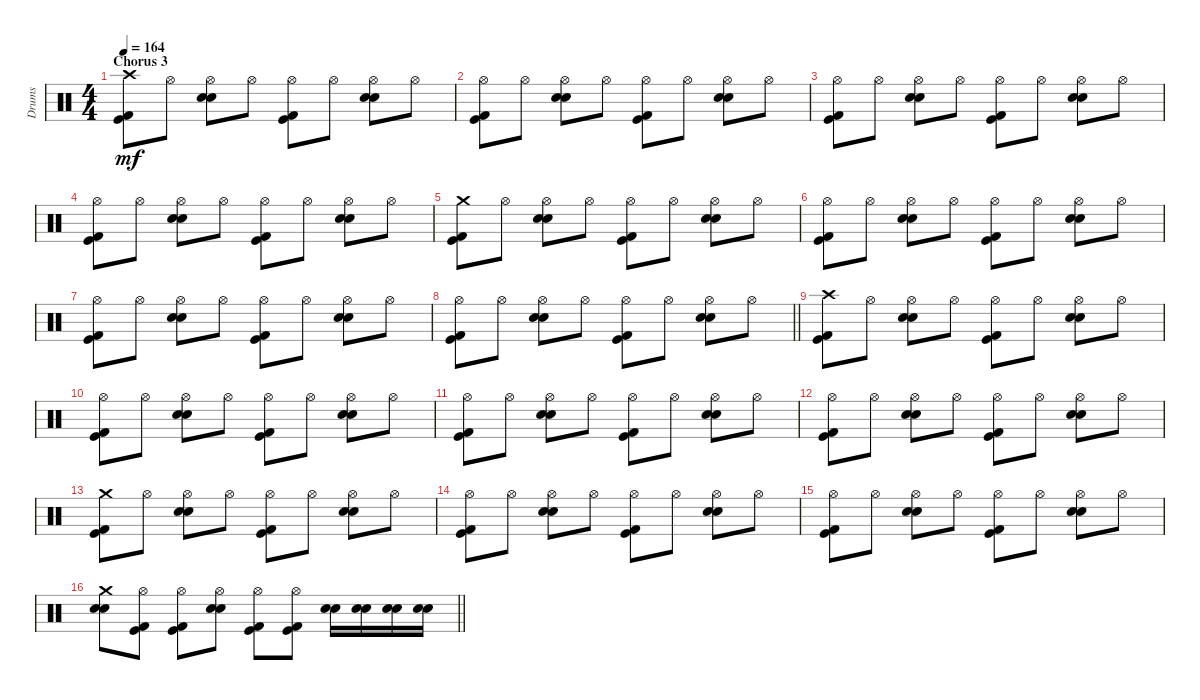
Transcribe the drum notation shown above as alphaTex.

\track ("Drums" "Drums") {instrument percussion}
\staff {score}
\articulation defaults
\ts (4 4)
\section ("" "Chorus 3")
\tempo 164
\clef neutral
\ks c
("Crash high (hit)" "Kick (hit) 2" "Kick (hit)").8{dy mf} "Hi-Hat (open)".8 ("Hi-Hat (open)" "Snare (hit) 2" "Electric Snare (hit)").8 "Hi-Hat (open)".8 ("Hi-Hat (open)" "Kick (hit) 2" "Kick (hit)").8 "Hi-Hat (open)".8 ("Hi-Hat (open)" "Snare (hit) 2" "Electric Snare (hit)").8 "Hi-Hat (open)".8 |
("Hi-Hat (open)" "Kick (hit) 2" "Kick (hit)").8 "Hi-Hat (open)".8 ("Hi-Hat (open)" "Snare (hit) 2" "Electric Snare (hit)").8 "Hi-Hat (open)".8 ("Hi-Hat (open)" "Kick (hit) 2" "Kick (hit)").8 "Hi-Hat (open)".8 ("Hi-Hat (open)" "Snare (hit) 2" "Electric Snare (hit)").8 "Hi-Hat (open)".8 |
("Hi-Hat (open)" "Kick (hit) 2" "Kick (hit)").8 "Hi-Hat (open)".8 ("Hi-Hat (open)" "Snare (hit) 2" "Electric Snare (hit)").8 "Hi-Hat (open)".8 ("Hi-Hat (open)" "Kick (hit) 2" "Kick (hit)").8 "Hi-Hat (open)".8 ("Hi-Hat (open)" "Snare (hit) 2" "Electric Snare (hit)").8 "Hi-Hat (open)".8 |
("Hi-Hat (open)" "Kick (hit) 2" "Kick (hit)").8 "Hi-Hat (open)".8 ("Hi-Hat (open)" "Snare (hit) 2" "Electric Snare (hit)").8 "Hi-Hat (open)".8 ("Hi-Hat (open)" "Kick (hit) 2" "Kick (hit)").8 "Hi-Hat (open)".8 ("Hi-Hat (open)" "Snare (hit) 2" "Electric Snare (hit)").8 "Hi-Hat (open)".8 |
("Crash medium (hit)" "Kick (hit) 2" "Kick (hit)").8 "Hi-Hat (open)".8 ("Hi-Hat (open)" "Snare (hit) 2" "Electric Snare (hit)").8 "Hi-Hat (open)".8 ("Hi-Hat (open)" "Kick (hit) 2" "Kick (hit)").8 "Hi-Hat (open)".8 ("Hi-Hat (open)" "Snare (hit) 2" "Electric Snare (hit)").8 "Hi-Hat (open)".8 |
("Hi-Hat (open)" "Kick (hit) 2" "Kick (hit)").8 "Hi-Hat (open)".8 ("Hi-Hat (open)" "Snare (hit) 2" "Electric Snare (hit)").8 "Hi-Hat (open)".8 ("Hi-Hat (open)" "Kick (hit) 2" "Kick (hit)").8 "Hi-Hat (open)".8 ("Hi-Hat (open)" "Snare (hit) 2" "Electric Snare (hit)").8 "Hi-Hat (open)".8 |
("Hi-Hat (open)" "Kick (hit) 2" "Kick (hit)").8 "Hi-Hat (open)".8 ("Hi-Hat (open)" "Snare (hit) 2" "Electric Snare (hit)").8 "Hi-Hat (open)".8 ("Hi-Hat (open)" "Kick (hit) 2" "Kick (hit)").8 "Hi-Hat (open)".8 ("Hi-Hat (open)" "Snare (hit) 2" "Electric Snare (hit)").8 "Hi-Hat (open)".8 |
\barLineRight lightlight
("Hi-Hat (open)" "Kick (hit) 2" "Kick (hit)").8 "Hi-Hat (open)".8 ("Hi-Hat (open)" "Snare (hit) 2" "Electric Snare (hit)").8 "Hi-Hat (open)".8 ("Hi-Hat (open)" "Kick (hit) 2" "Kick (hit)").8 "Hi-Hat (open)".8 ("Hi-Hat (open)" "Snare (hit) 2" "Electric Snare (hit)").8 "Hi-Hat (open)".8 |
("Crash high (hit)" "Kick (hit) 2" "Kick (hit)").8 "Hi-Hat (open)".8 ("Hi-Hat (open)" "Snare (hit) 2" "Electric Snare (hit)").8 "Hi-Hat (open)".8 ("Hi-Hat (open)" "Kick (hit) 2" "Kick (hit)").8 "Hi-Hat (open)".8 ("Hi-Hat (open)" "Snare (hit) 2" "Electric Snare (hit)").8 "Hi-Hat (open)".8 |
("Hi-Hat (open)" "Kick (hit) 2" "Kick (hit)").8 "Hi-Hat (open)".8 ("Hi-Hat (open)" "Snare (hit) 2" "Electric Snare (hit)").8 "Hi-Hat (open)".8 ("Hi-Hat (open)" "Kick (hit) 2" "Kick (hit)").8 "Hi-Hat (open)".8 ("Hi-Hat (open)" "Snare (hit) 2" "Electric Snare (hit)").8 "Hi-Hat (open)".8 |
("Hi-Hat (open)" "Kick (hit) 2" "Kick (hit)").8 "Hi-Hat (open)".8 ("Hi-Hat (open)" "Snare (hit) 2" "Electric Snare (hit)").8 "Hi-Hat (open)".8 ("Hi-Hat (open)" "Kick (hit) 2" "Kick (hit)").8 "Hi-Hat (open)".8 ("Hi-Hat (open)" "Snare (hit) 2" "Electric Snare (hit)").8 "Hi-Hat (open)".8 |
("Hi-Hat (open)" "Kick (hit) 2" "Kick (hit)").8 "Hi-Hat (open)".8 ("Hi-Hat (open)" "Snare (hit) 2" "Electric Snare (hit)").8 "Hi-Hat (open)".8 ("Hi-Hat (open)" "Kick (hit) 2" "Kick (hit)").8 "Hi-Hat (open)".8 ("Hi-Hat (open)" "Snare (hit) 2" "Electric Snare (hit)").8 "Hi-Hat (open)".8 |
("Crash medium (hit)" "Kick (hit) 2" "Kick (hit)").8 "Hi-Hat (open)".8 ("Hi-Hat (open)" "Snare (hit) 2" "Electric Snare (hit)").8 "Hi-Hat (open)".8 ("Hi-Hat (open)" "Kick (hit) 2" "Kick (hit)").8 "Hi-Hat (open)".8 ("Hi-Hat (open)" "Snare (hit) 2" "Electric Snare (hit)").8 "Hi-Hat (open)".8 |
("Hi-Hat (open)" "Kick (hit) 2" "Kick (hit)").8 "Hi-Hat (open)".8 ("Hi-Hat (open)" "Snare (hit) 2" "Electric Snare (hit)").8 "Hi-Hat (open)".8 ("Hi-Hat (open)" "Kick (hit) 2" "Kick (hit)").8 "Hi-Hat (open)".8 ("Hi-Hat (open)" "Snare (hit) 2" "Electric Snare (hit)").8 "Hi-Hat (open)".8 |
("Hi-Hat (open)" "Kick (hit) 2" "Kick (hit)").8 "Hi-Hat (open)".8 ("Hi-Hat (open)" "Snare (hit) 2" "Electric Snare (hit)").8 "Hi-Hat (open)".8 ("Hi-Hat (open)" "Kick (hit) 2" "Kick (hit)").8 "Hi-Hat (open)".8 ("Hi-Hat (open)" "Snare (hit) 2" "Electric Snare (hit)").8 "Hi-Hat (open)".8 |
\barLineRight lightlight
("Crash medium (hit)" "Snare (hit) 2" "Electric Snare (hit)").8 ("Hi-Hat (open)" "Kick (hit) 2" "Kick (hit)").8 ("Hi-Hat (open)" "Kick (hit) 2" "Kick (hit)").8 ("Hi-Hat (open)" "Snare (hit) 2" "Electric Snare (hit)").8 ("Hi-Hat (open)" "Kick (hit) 2" "Kick (hit)").8 ("Hi-Hat (open)" "Kick (hit) 2" "Kick (hit)").8 ("Snare (hit) 2" "Electric Snare (hit)").16 ("Snare (hit) 2" "Electric Snare (hit)").16 ("Snare (hit) 2" "Electric Snare (hit)").16 ("Snare (hit) 2" "Electric Snare (hit)").16
